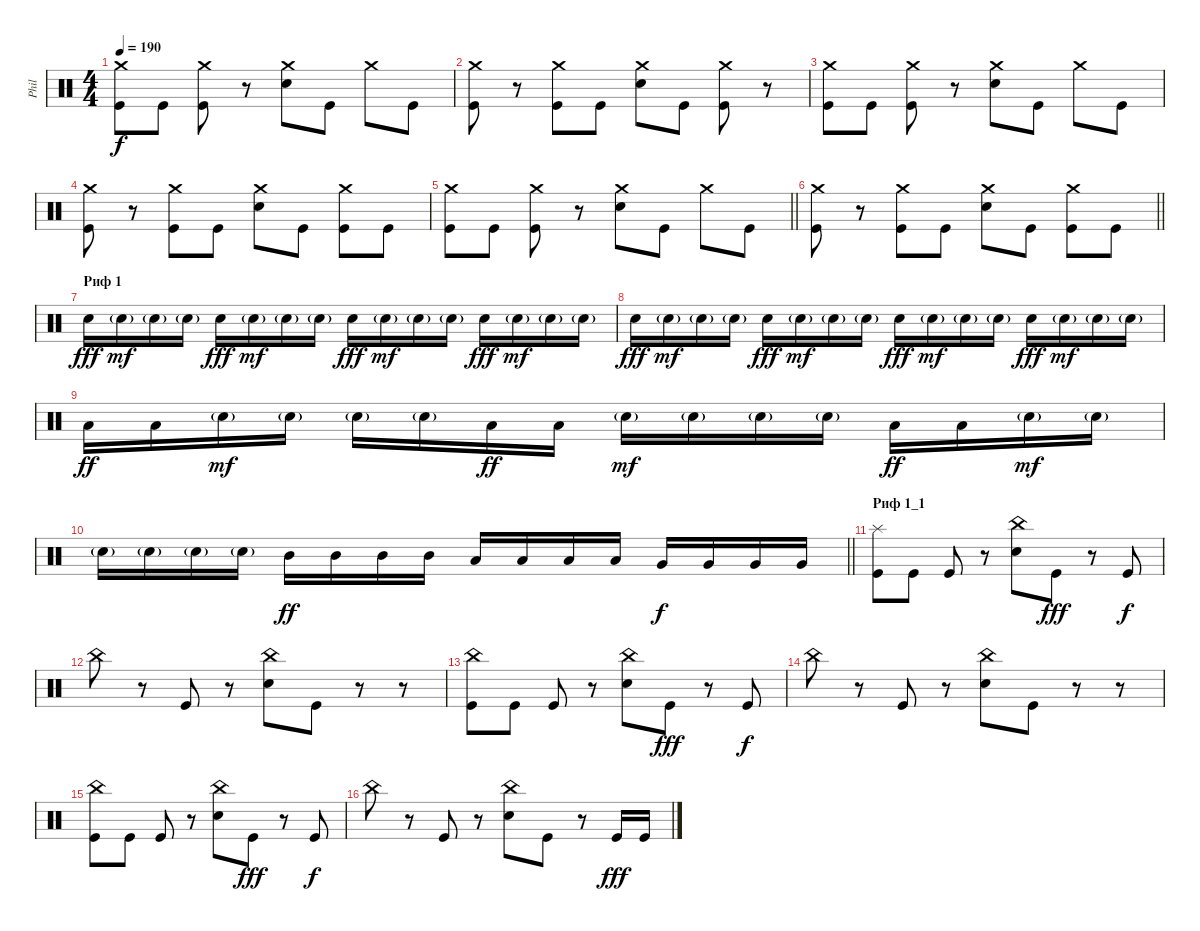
\track ("Phil" "Phil") {instrument percussion}
\staff {score}
\articulation defaults
\ts (4 4)
\tempo 190
\clef neutral
\ks c
("Crash medium (hit)" "Kick (hit)").8{dy f} "Kick (hit)".8 ("Crash medium (hit)" "Kick (hit)").8 r.8 ("Crash medium (hit)" "Electric Snare (hit)").8 "Kick (hit)".8 "Crash medium (hit)".8 "Kick (hit)".8 |
("Crash medium (hit)" "Kick (hit)").8 r.8 ("Crash medium (hit)" "Kick (hit)").8 "Kick (hit)".8 ("Crash medium (hit)" "Electric Snare (hit)").8 "Kick (hit)".8 ("Crash medium (hit)" "Kick (hit)").8 r.8 |
("Crash medium (hit)" "Kick (hit)").8 "Kick (hit)".8 ("Crash medium (hit)" "Kick (hit)").8 r.8 ("Crash medium (hit)" "Electric Snare (hit)").8 "Kick (hit)".8 "Crash medium (hit)".8 "Kick (hit)".8 |
("Crash medium (hit)" "Kick (hit)").8 r.8 ("Crash medium (hit)" "Kick (hit)").8 "Kick (hit)".8 ("Crash medium (hit)" "Electric Snare (hit)").8 "Kick (hit)".8 ("Crash medium (hit)" "Kick (hit)").8 "Kick (hit)".8 |
\barLineRight lightlight
("Crash medium (hit)" "Kick (hit)").8 "Kick (hit)".8 ("Crash medium (hit)" "Kick (hit)").8 r.8 ("Crash medium (hit)" "Electric Snare (hit)").8 "Kick (hit)".8 "Crash medium (hit)".8 "Kick (hit)".8 |
\section ("" "")
\barLineRight lightlight
("Crash medium (hit)" "Kick (hit)").8 r.8 ("Crash medium (hit)" "Kick (hit)").8 "Kick (hit)".8 ("Crash medium (hit)" "Electric Snare (hit)").8 "Kick (hit)".8 ("Crash medium (hit)" "Kick (hit)").8 "Kick (hit)".8 |
\section ("" "Риф 1")
"Electric Snare (hit)".16{dy fff} "Electric Snare (hit)"{g}.16{dy mf} "Electric Snare (hit)"{g}.16 "Electric Snare (hit)"{g}.16 "Electric Snare (hit)".16{dy fff} "Electric Snare (hit)"{g}.16{dy mf} "Electric Snare (hit)"{g}.16 "Electric Snare (hit)"{g}.16 "Electric Snare (hit)".16{dy fff} "Electric Snare (hit)"{g}.16{dy mf} "Electric Snare (hit)"{g}.16 "Electric Snare (hit)"{g}.16 "Electric Snare (hit)".16{dy fff} "Electric Snare (hit)"{g}.16{dy mf} "Electric Snare (hit)"{g}.16 "Electric Snare (hit)"{g}.16 |
"Electric Snare (hit)".16{dy fff} "Electric Snare (hit)"{g}.16{dy mf} "Electric Snare (hit)"{g}.16 "Electric Snare (hit)"{g}.16 "Electric Snare (hit)".16{dy fff} "Electric Snare (hit)"{g}.16{dy mf} "Electric Snare (hit)"{g}.16 "Electric Snare (hit)"{g}.16 "Electric Snare (hit)".16{dy fff} "Electric Snare (hit)"{g}.16{dy mf} "Electric Snare (hit)"{g}.16 "Electric Snare (hit)"{g}.16 "Electric Snare (hit)".16{dy fff} "Electric Snare (hit)"{g}.16{dy mf} "Electric Snare (hit)"{g}.16 "Electric Snare (hit)"{g}.16 |
"Low Tom (hit)".16{dy ff} "Low Tom (hit)".16 "Electric Snare (hit)"{g}.16{dy mf} "Electric Snare (hit)"{g}.16 "Electric Snare (hit)"{g}.16 "Electric Snare (hit)"{g}.16 "Low Tom (hit)".16{dy ff} "Low Tom (hit)".16 "Electric Snare (hit)"{g}.16{dy mf} "Electric Snare (hit)"{g}.16 "Electric Snare (hit)"{g}.16 "Electric Snare (hit)"{g}.16 "Low Tom (hit)".16{dy ff} "Low Tom (hit)".16 "Electric Snare (hit)"{g}.16{dy mf} "Electric Snare (hit)"{g}.16 |
\barLineRight lightlight "Electric Snare (hit)"{g}.16 "Electric Snare (hit)"{g}.16 "Electric Snare (hit)"{g}.16 "Electric Snare (hit)"{g}.16 "Mid Tom (hit)".16{dy ff} "Mid Tom (hit)".16 "Mid Tom (hit)".16 "Mid Tom (hit)".16 "Low Tom (hit)".16 "Low Tom (hit)".16 "Low Tom (hit)".16 "Low Tom (hit)".16 "Very Low Tom (hit)".16{dy f} "Very Low Tom (hit)".16 "Very Low Tom (hit)".16 "Very Low Tom (hit)".16
|
\section ("" "Риф 1_1")
("Splash (hit)" "Kick (hit)").8 "Kick (hit)".8 "Kick (hit)".8 r.8 ("China (hit)" "Electric Snare (hit)").8 "Kick (hit)".8{dy fff} r.8 "Kick (hit)".8{dy f} |
"China (hit)".8 r.8 "Kick (hit)".8 r.8 ("China (hit)" "Electric Snare (hit)").8 "Kick (hit)".8 r.8 r.8 |
("China (hit)" "Kick (hit)").8 "Kick (hit)".8 "Kick (hit)".8 r.8 ("China (hit)" "Electric Snare (hit)").8 "Kick (hit)".8{dy fff} r.8 "Kick (hit)".8{dy f} |
"China (hit)".8 r.8 "Kick (hit)".8 r.8 ("China (hit)" "Electric Snare (hit)").8 "Kick (hit)".8 r.8 r.8 |
("China (hit)" "Kick (hit)").8 "Kick (hit)".8 "Kick (hit)".8 r.8 ("China (hit)" "Electric Snare (hit)").8 "Kick (hit)".8{dy fff} r.8 "Kick (hit)".8{dy f} |
"China (hit)".8 r.8 "Kick (hit)".8 r.8 ("China (hit)" "Electric Snare (hit)").8 "Kick (hit)".8 r.8 "Kick (hit)".16{dy fff} "Kick (hit)".16
